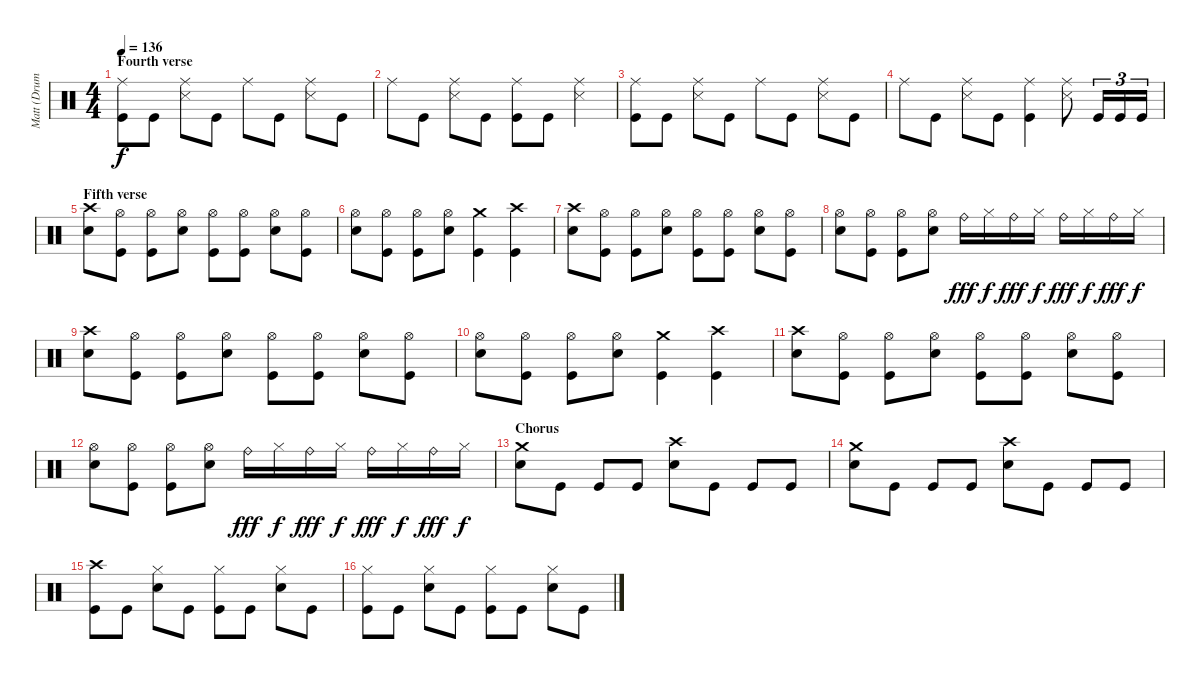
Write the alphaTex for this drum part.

\track ("Matt (Drums)" "Matt (Drum") {instrument percussion}
\staff {score}
\articulation defaults
\ts (4 4)
\section ("" "Fourth verse")
\tempo 136
\clef neutral
\ks c
("Ride (middle)" "Kick (hit)").8{dy f} "Kick (hit)".8 ("Ride (middle)" "Snare (side stick) 3").8 "Kick (hit)".8 "Ride (middle)".8 "Kick (hit)".8 ("Ride (middle)" "Snare (side stick) 3").8 "Kick (hit)".8 |
"Ride (middle)".8 "Kick (hit)".8 ("Ride (middle)" "Snare (side stick) 3").8 "Kick (hit)".8 ("Ride (middle)" "Kick (hit)").8 "Kick (hit)".8 ("Ride (middle)" "Snare (side stick) 3").4 |
("Ride (middle)" "Kick (hit)").8 "Kick (hit)".8 ("Ride (middle)" "Snare (side stick) 3").8 "Kick (hit)".8 "Ride (middle)".8 "Kick (hit)".8 ("Ride (middle)" "Snare (side stick) 3").8 "Kick (hit)".8 |
"Ride (middle)".8 "Kick (hit)".8 ("Ride (middle)" "Snare (side stick) 3").8 "Kick (hit)".8 ("Ride (middle)" "Kick (hit)").4 ("Ride (middle)" "Snare (side stick) 3").8 "Kick (hit)".16{tu (3 2)} "Kick (hit)".16{tu (3 2)} "Kick (hit)".16{tu (3 2)} |
\section ("" "Fifth verse")
("Crash high (hit)" "Electric Snare (hit)").8 ("Hi-Hat (open)" "Kick (hit)").8 ("Hi-Hat (open)" "Kick (hit)").8 ("Hi-Hat (open)" "Electric Snare (hit)").8 ("Hi-Hat (open)" "Kick (hit)").8 ("Hi-Hat (open)" "Kick (hit)").8 ("Hi-Hat (open)" "Electric Snare (hit)").8 ("Hi-Hat (open)" "Kick (hit)").8 |
("Hi-Hat (open)" "Electric Snare (hit)").8 ("Hi-Hat (open)" "Kick (hit)").8 ("Hi-Hat (open)" "Kick (hit)").8 ("Hi-Hat (open)" "Electric Snare (hit)").8 ("Crash medium (hit)" "Kick (hit)").4 ("Crash high (hit)" "Kick (hit)").4 |
("Crash high (hit)" "Electric Snare (hit)").8 ("Hi-Hat (open)" "Kick (hit)").8 ("Hi-Hat (open)" "Kick (hit)").8 ("Hi-Hat (open)" "Electric Snare (hit)").8 ("Hi-Hat (open)" "Kick (hit)").8 ("Hi-Hat (open)" "Kick (hit)").8 ("Hi-Hat (open)" "Electric Snare (hit)").8 ("Hi-Hat (open)" "Kick (hit)").8 |
("Hi-Hat (open)" "Electric Snare (hit)").8 ("Hi-Hat (open)" "Kick (hit)").8 ("Hi-Hat (open)" "Kick (hit)").8 ("Hi-Hat (open)" "Electric Snare (hit)").8 "Ride (bell)".16{dy fff} "Hi-Hat (closed)".16{dy f} "Ride (bell)".16{dy fff} "Hi-Hat (closed)".16{dy f} "Ride (bell)".16{dy fff} "Hi-Hat (closed)".16{dy f} "Ride (bell)".16{dy fff} "Hi-Hat (closed)".16{dy f} |
("Crash high (hit)" "Electric Snare (hit)").8 ("Hi-Hat (open)" "Kick (hit)").8 ("Hi-Hat (open)" "Kick (hit)").8 ("Hi-Hat (open)" "Electric Snare (hit)").8 ("Hi-Hat (open)" "Kick (hit)").8 ("Hi-Hat (open)" "Kick (hit)").8 ("Hi-Hat (open)" "Electric Snare (hit)").8 ("Hi-Hat (open)" "Kick (hit)").8 |
("Hi-Hat (open)" "Electric Snare (hit)").8 ("Hi-Hat (open)" "Kick (hit)").8 ("Hi-Hat (open)" "Kick (hit)").8 ("Hi-Hat (open)" "Electric Snare (hit)").8 ("Crash medium (hit)" "Kick (hit)").4 ("Crash high (hit)" "Kick (hit)").4 |
("Crash high (hit)" "Electric Snare (hit)").8 ("Hi-Hat (open)" "Kick (hit)").8 ("Hi-Hat (open)" "Kick (hit)").8 ("Hi-Hat (open)" "Electric Snare (hit)").8 ("Hi-Hat (open)" "Kick (hit)").8 ("Hi-Hat (open)" "Kick (hit)").8 ("Hi-Hat (open)" "Electric Snare (hit)").8 ("Hi-Hat (open)" "Kick (hit)").8 |
("Hi-Hat (open)" "Electric Snare (hit)").8 ("Hi-Hat (open)" "Kick (hit)").8 ("Hi-Hat (open)" "Kick (hit)").8 ("Hi-Hat (open)" "Electric Snare (hit)").8 "Ride (bell)".16{dy fff} "Hi-Hat (closed)".16{dy f} "Ride (bell)".16{dy fff} "Hi-Hat (closed)".16{dy f} "Ride (bell)".16{dy fff} "Hi-Hat (closed)".16{dy f} "Ride (bell)".16{dy fff} "Hi-Hat (closed)".16{dy f} |
\section ("" "Chorus")
("Crash medium (hit)" "Electric Snare (hit)").8 "Kick (hit)".8 "Kick (hit)".8 "Kick (hit)".8 ("Crash high (hit)" "Electric Snare (hit)").8 "Kick (hit)".8 "Kick (hit)".8 "Kick (hit)".8 |
("Crash medium (hit)" "Electric Snare (hit)").8 "Kick (hit)".8 "Kick (hit)".8 "Kick (hit)".8 ("Crash high (hit)" "Electric Snare (hit)").8 "Kick (hit)".8 "Kick (hit)".8 "Kick (hit)".8 |
("Crash high (hit)" "Kick (hit)").8 "Kick (hit)".8 ("Hi-Hat (closed)" "Electric Snare (hit)").8 "Kick (hit)".8 ("Hi-Hat (closed)" "Kick (hit)").8 "Kick (hit)".8 ("Hi-Hat (closed)" "Electric Snare (hit)").8 "Kick (hit)".8 |
("Hi-Hat (closed)" "Kick (hit)").8 "Kick (hit)".8 ("Hi-Hat (closed)" "Electric Snare (hit)").8 "Kick (hit)".8 ("Hi-Hat (closed)" "Kick (hit)").8 "Kick (hit)".8 ("Hi-Hat (closed)" "Electric Snare (hit)").8 "Kick (hit)".8
